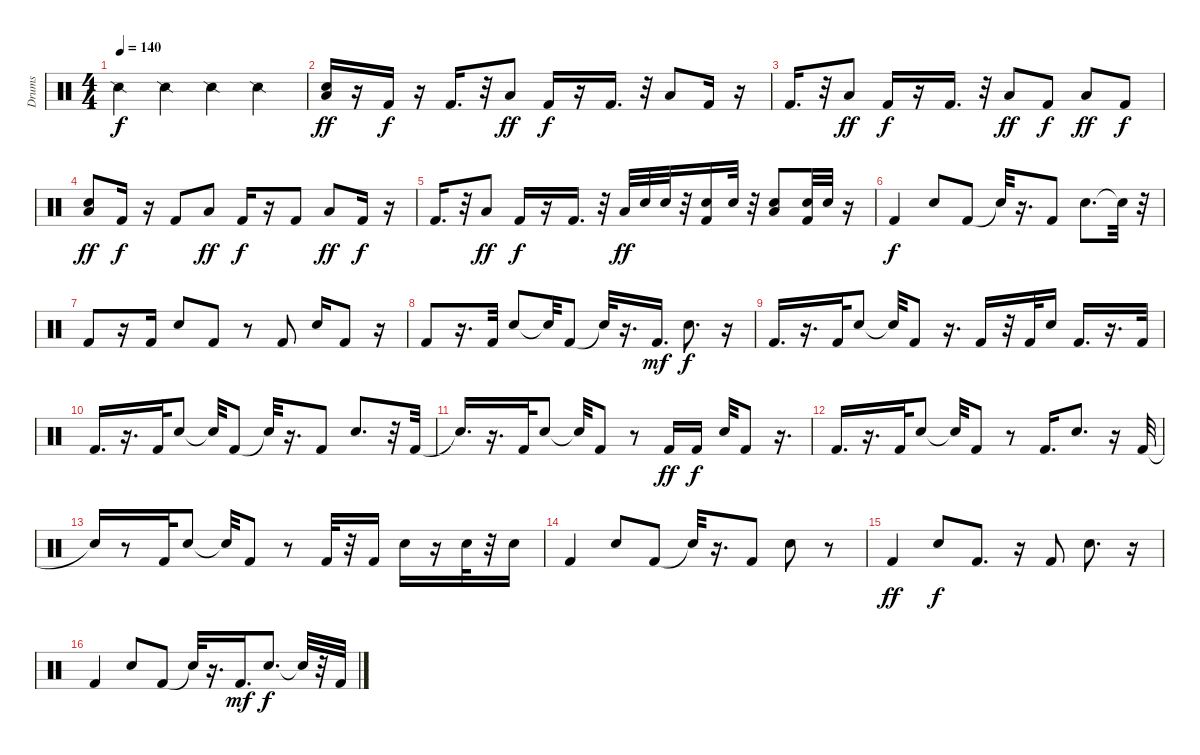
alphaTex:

\track ("Drums" "Drums") {instrument percussion}
\staff {score}
\articulation defaults
\ts (4 4)
\tempo 140
\clef neutral
\ks c "Snare (side stick) 2".4{dy f} "Snare (side stick) 2".4 "Snare (side stick) 2".4 "Snare (side stick) 2".4
|
("Low Floor Tom (hit)" "Electric Snare (hit)").16{dy ff} r.16 "Kick (hit) 2".16{dy f} r.16 "Kick (hit) 2".16{d} r.32 "Low Floor Tom (hit)".8{dy ff} "Kick (hit) 2".16{dy f} r.16 "Kick (hit) 2".16{d} r.32 "Low Floor Tom (hit)".8 "Kick (hit) 2".16 r.16 |
"Kick (hit) 2".16{d} r.32 "Low Floor Tom (hit)".8{dy ff} "Kick (hit) 2".16{dy f} r.16 "Kick (hit) 2".16{d} r.32 "Low Floor Tom (hit)".8{dy ff} "Kick (hit) 2".8{dy f} "Low Floor Tom (hit)".8{dy ff} "Kick (hit) 2".8{dy f} |
("Low Floor Tom (hit)" "Electric Snare (hit)").8{dy ff} "Kick (hit) 2".16{dy f} r.16 "Kick (hit) 2".8 "Low Floor Tom (hit)".8{dy ff} "Kick (hit) 2".16{dy f} r.16 "Kick (hit) 2".8 "Low Floor Tom (hit)".8{dy ff} "Kick (hit) 2".16{dy f} r.16 |
"Kick (hit) 2".16{d} r.32 "Low Floor Tom (hit)".8{dy ff} "Kick (hit) 2".16{dy f} r.16 "Kick (hit) 2".16{d} r.32 "Low Floor Tom (hit)".32{dy ff} "Electric Snare (hit)".32 "Electric Snare (hit)".32 r.32 ("Electric Snare (hit)" "Kick (hit) 2").16 "Electric Snare (hit)".32 r.32 ("Electric Snare (hit)" "Low Floor Tom (hit)").8 ("Electric Snare (hit)" "Kick (hit) 2").32 "Electric Snare (hit)".32 r.16 |
"Kick (hit) 2".4{dy f} "Snare (hit) 2".8 "Kick (hit) 2".8 "Snare (hit)"{t}.32 r.16{d} "Kick (hit) 2".8 "Snare (hit) 2".8{d} "Snare (hit)"{t}.32 r.32 |
"Kick (hit) 2".8 r.16 "Kick (hit) 2".16 "Snare (hit) 2".8 "Kick (hit) 2".8 r.8 "Kick (hit) 2".8 "Snare (hit) 2".16 "Kick (hit) 2".8 r.16 |
"Kick (hit) 2".8 r.16{d} "Kick (hit) 2".32 "Snare (hit) 2".8 "Snare (hit)"{t}.32 "Kick (hit) 2".8 "Snare (hit)"{t}.32 r.16{d} "Kick (hit) 2".16{d dy mf} "Snare (hit) 2".8{d dy f} r.16 |
"Kick (hit) 2".16{d} r.16{d} "Kick (hit) 2".32 "Snare (hit) 2".8 "Snare (hit)"{t}.32 "Kick (hit) 2".8 r.16{d} "Kick (hit) 2".16 r.32 "Kick (hit) 2".32 "Snare (hit) 2".16 "Kick (hit) 2".16{d} r.16{d} "Kick (hit) 2".32 |
"Kick (hit) 2".16{d} r.16{d} "Kick (hit) 2".32 "Snare (hit) 2".8 "Snare (hit)"{t}.32 "Kick (hit) 2".8 "Snare (hit)"{t}.32 r.16{d} "Kick (hit) 2".8 "Snare (hit) 2".8{d} r.32 "Kick (hit) 2".32 |
"Snare (hit)"{t}.16{d} r.16{d} "Kick (hit) 2".32 "Snare (hit) 2".8 "Snare (hit)"{t}.32 "Kick (hit) 2".8 r.8 "Kick (hit) 2".16{dy ff} "Kick (hit) 2".16{dy f} "Snare (hit) 2".32 "Kick (hit) 2".8 r.16{d} |
"Kick (hit) 2".16{d} r.16{d} "Kick (hit) 2".32 "Snare (hit) 2".8 "Snare (hit)"{t}.32 "Kick (hit) 2".8 r.8 "Kick (hit) 2".16{d} "Snare (hit) 2".8{d} r.16 "Kick (hit) 2".32 |
"Snare (hit)"{t}.16 r.8 "Kick (hit) 2".32 "Snare (hit) 2".8 "Snare (hit)"{t}.32 "Kick (hit) 2".8 r.8 "Kick (hit) 2".32 r.32 "Kick (hit) 2".16 "Snare (hit) 2".16 r.16 "Snare (hit) 2".32 r.32 "Snare (hit) 2".16 |
"Kick (hit) 2".4 "Snare (hit) 2".8 "Kick (hit) 2".8 "Snare (hit)"{t}.32 r.16{d} "Kick (hit) 2".8 "Snare (hit) 2".8 r.8 |
"Kick (hit) 2".4{dy ff} "Snare (hit) 2".8{dy f} "Kick (hit) 2".8{d} r.16 "Kick (hit) 2".8 "Snare (hit) 2".8{d} r.16 |
"Kick (hit) 2".4 "Snare (hit) 2".8 "Kick (hit) 2".8 "Snare (hit)"{t}.32 r.16{d} "Kick (hit) 2".16{d dy mf} "Snare (hit) 2".8{d dy f} "Snare (hit)"{t}.32 r.32 "Kick (hit) 2".32
